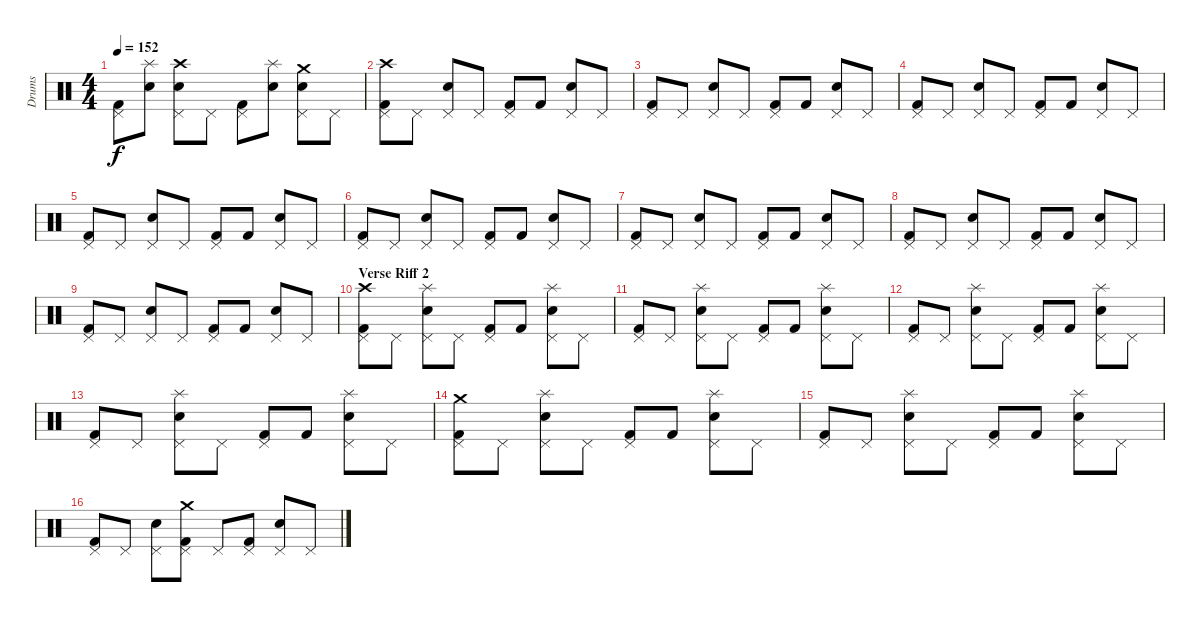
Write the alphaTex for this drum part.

\track ("Drums" "Drums") {instrument percussion}
\staff {score}
\articulation defaults
\ts (4 4)
\tempo 152
\clef neutral
\ks c
("Kick (hit) 2" "Pedal Hi-Hat (hit)").8{dy f} ("Snare (hit) 2" "Splash (hit)").8 ("Snare (hit) 2" "Pedal Hi-Hat (hit)" "Crash high (hit)").8 "Pedal Hi-Hat (hit)".8 ("Kick (hit) 2" "Pedal Hi-Hat (hit)").8 ("Snare (hit) 2" "Splash (hit)").8 ("Snare (hit) 2" "Pedal Hi-Hat (hit)" "Crash medium (hit)").8 "Pedal Hi-Hat (hit)".8 |
("Kick (hit) 2" "Pedal Hi-Hat (hit)" "Crash high (hit)").8 "Pedal Hi-Hat (hit)".8 ("Snare (hit) 2" "Pedal Hi-Hat (hit)").8 "Pedal Hi-Hat (hit)".8 ("Kick (hit) 2" "Pedal Hi-Hat (hit)").8 "Kick (hit) 2".8 ("Snare (hit) 2" "Pedal Hi-Hat (hit)").8 "Pedal Hi-Hat (hit)".8 |
("Kick (hit) 2" "Pedal Hi-Hat (hit)").8 "Pedal Hi-Hat (hit)".8 ("Snare (hit) 2" "Pedal Hi-Hat (hit)").8 "Pedal Hi-Hat (hit)".8 ("Kick (hit) 2" "Pedal Hi-Hat (hit)").8 "Kick (hit) 2".8 ("Snare (hit) 2" "Pedal Hi-Hat (hit)").8 "Pedal Hi-Hat (hit)".8 |
("Kick (hit) 2" "Pedal Hi-Hat (hit)").8 "Pedal Hi-Hat (hit)".8 ("Snare (hit) 2" "Pedal Hi-Hat (hit)").8 "Pedal Hi-Hat (hit)".8 ("Kick (hit) 2" "Pedal Hi-Hat (hit)").8 "Kick (hit) 2".8 ("Snare (hit) 2" "Pedal Hi-Hat (hit)").8 "Pedal Hi-Hat (hit)".8 |
("Kick (hit) 2" "Pedal Hi-Hat (hit)").8 "Pedal Hi-Hat (hit)".8 ("Snare (hit) 2" "Pedal Hi-Hat (hit)").8 "Pedal Hi-Hat (hit)".8 ("Kick (hit) 2" "Pedal Hi-Hat (hit)").8 "Kick (hit) 2".8 ("Snare (hit) 2" "Pedal Hi-Hat (hit)").8 "Pedal Hi-Hat (hit)".8 |
("Kick (hit) 2" "Pedal Hi-Hat (hit)").8 "Pedal Hi-Hat (hit)".8 ("Snare (hit) 2" "Pedal Hi-Hat (hit)").8 "Pedal Hi-Hat (hit)".8 ("Kick (hit) 2" "Pedal Hi-Hat (hit)").8 "Kick (hit) 2".8 ("Snare (hit) 2" "Pedal Hi-Hat (hit)").8 "Pedal Hi-Hat (hit)".8 |
("Kick (hit) 2" "Pedal Hi-Hat (hit)").8 "Pedal Hi-Hat (hit)".8 ("Snare (hit) 2" "Pedal Hi-Hat (hit)").8 "Pedal Hi-Hat (hit)".8 ("Kick (hit) 2" "Pedal Hi-Hat (hit)").8 "Kick (hit) 2".8 ("Snare (hit) 2" "Pedal Hi-Hat (hit)").8 "Pedal Hi-Hat (hit)".8 |
("Kick (hit) 2" "Pedal Hi-Hat (hit)").8 "Pedal Hi-Hat (hit)".8 ("Snare (hit) 2" "Pedal Hi-Hat (hit)").8 "Pedal Hi-Hat (hit)".8 ("Kick (hit) 2" "Pedal Hi-Hat (hit)").8 "Kick (hit) 2".8 ("Snare (hit) 2" "Pedal Hi-Hat (hit)").8 "Pedal Hi-Hat (hit)".8 |
("Kick (hit) 2" "Pedal Hi-Hat (hit)").8 "Pedal Hi-Hat (hit)".8 ("Snare (hit) 2" "Pedal Hi-Hat (hit)").8 "Pedal Hi-Hat (hit)".8 ("Kick (hit) 2" "Pedal Hi-Hat (hit)").8 "Kick (hit) 2".8 ("Snare (hit) 2" "Pedal Hi-Hat (hit)").8 "Pedal Hi-Hat (hit)".8 |
\section ("" "Verse Riff 2")
("Kick (hit) 2" "Pedal Hi-Hat (hit)" "Crash high (hit)").8 "Pedal Hi-Hat (hit)".8 ("Snare (hit) 2" "Pedal Hi-Hat (hit)" "Splash (hit)").8 "Pedal Hi-Hat (hit)".8 ("Kick (hit) 2" "Pedal Hi-Hat (hit)").8 "Kick (hit) 2".8 ("Snare (hit) 2" "Pedal Hi-Hat (hit)" "Splash (hit)").8 "Pedal Hi-Hat (hit)".8 |
("Kick (hit) 2" "Pedal Hi-Hat (hit)").8 "Pedal Hi-Hat (hit)".8 ("Snare (hit) 2" "Pedal Hi-Hat (hit)" "Splash (hit)").8 "Pedal Hi-Hat (hit)".8 ("Kick (hit) 2" "Pedal Hi-Hat (hit)").8 "Kick (hit) 2".8 ("Snare (hit) 2" "Pedal Hi-Hat (hit)" "Splash (hit)").8 "Pedal Hi-Hat (hit)".8 |
("Kick (hit) 2" "Pedal Hi-Hat (hit)").8 "Pedal Hi-Hat (hit)".8 ("Snare (hit) 2" "Pedal Hi-Hat (hit)" "Splash (hit)").8 "Pedal Hi-Hat (hit)".8 ("Kick (hit) 2" "Pedal Hi-Hat (hit)").8 "Kick (hit) 2".8 ("Snare (hit) 2" "Pedal Hi-Hat (hit)" "Splash (hit)").8 "Pedal Hi-Hat (hit)".8 |
("Kick (hit) 2" "Pedal Hi-Hat (hit)").8 "Pedal Hi-Hat (hit)".8 ("Snare (hit) 2" "Pedal Hi-Hat (hit)" "Splash (hit)").8 "Pedal Hi-Hat (hit)".8 ("Kick (hit) 2" "Pedal Hi-Hat (hit)").8 "Kick (hit) 2".8 ("Snare (hit) 2" "Pedal Hi-Hat (hit)" "Splash (hit)").8 "Pedal Hi-Hat (hit)".8 |
("Kick (hit) 2" "Pedal Hi-Hat (hit)" "Crash medium (hit)").8 "Pedal Hi-Hat (hit)".8 ("Snare (hit) 2" "Pedal Hi-Hat (hit)" "Splash (hit)").8 "Pedal Hi-Hat (hit)".8 ("Kick (hit) 2" "Pedal Hi-Hat (hit)").8 "Kick (hit) 2".8 ("Snare (hit) 2" "Pedal Hi-Hat (hit)" "Splash (hit)").8 "Pedal Hi-Hat (hit)".8 |
("Kick (hit) 2" "Pedal Hi-Hat (hit)").8 "Pedal Hi-Hat (hit)".8 ("Snare (hit) 2" "Pedal Hi-Hat (hit)" "Splash (hit)").8 "Pedal Hi-Hat (hit)".8 ("Kick (hit) 2" "Pedal Hi-Hat (hit)").8 "Kick (hit) 2".8 ("Snare (hit) 2" "Pedal Hi-Hat (hit)" "Splash (hit)").8 "Pedal Hi-Hat (hit)".8 |
("Kick (hit) 2" "Pedal Hi-Hat (hit)").8 "Pedal Hi-Hat (hit)".8 ("Snare (hit) 2" "Pedal Hi-Hat (hit)").8 ("Kick (hit) 2" "Pedal Hi-Hat (hit)" "Crash medium (hit)").8 "Pedal Hi-Hat (hit)".8 ("Kick (hit) 2" "Pedal Hi-Hat (hit)").8 ("Snare (hit) 2" "Pedal Hi-Hat (hit)").8 "Pedal Hi-Hat (hit)".8
